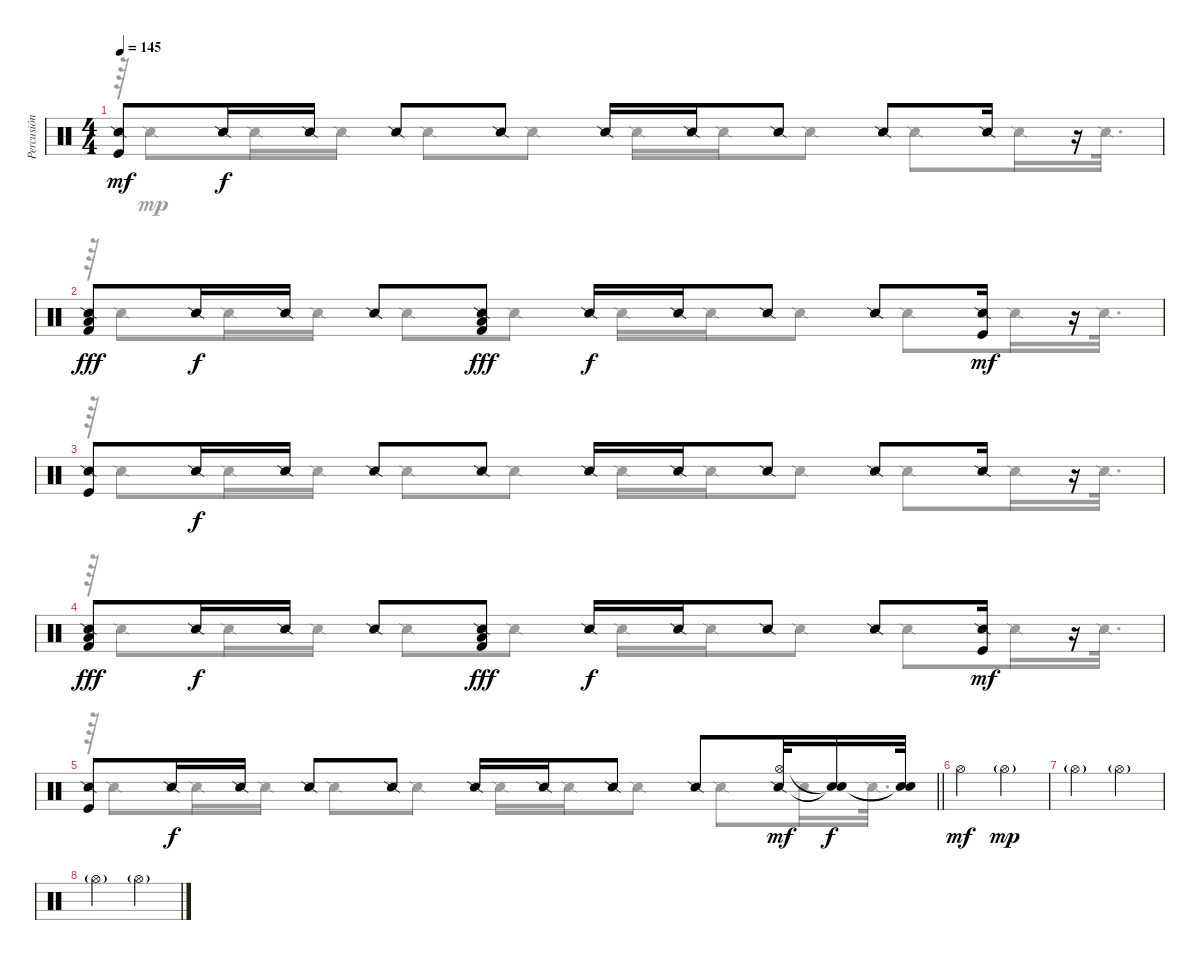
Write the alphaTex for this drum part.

\track ("Percusión" "Percusión") {instrument percussion}
\staff {score}
\articulation defaults
\voice
\ts (4 4)
\tempo 145
\clef neutral
\ks c
("Snare (side stick) 2" "Kick (hit)").8{dy mf} "Snare (side stick) 2".16{dy f} "Snare (side stick) 2".16 "Snare (side stick) 2".8 "Snare (side stick) 2".8 "Snare (side stick) 2".16 "Snare (side stick) 2".16 "Snare (side stick) 2".8 "Snare (side stick) 2".8 "Snare (side stick) 2".16 r.16 |
("Snare (side stick) 2" "Low Floor Tom (hit)" "Kick (hit) 2").8{dy fff} "Snare (side stick) 2".16{dy f} "Snare (side stick) 2".16 "Snare (side stick) 2".8 ("Snare (side stick) 2" "Low Floor Tom (hit)" "Kick (hit) 2").8{dy fff} "Snare (side stick) 2".16{dy f} "Snare (side stick) 2".16 "Snare (side stick) 2".8 "Snare (side stick) 2".8 ("Snare (side stick) 2" "Kick (hit)").16{dy mf} r.16 |
("Snare (side stick) 2" "Kick (hit)").8 "Snare (side stick) 2".16{dy f} "Snare (side stick) 2".16 "Snare (side stick) 2".8 "Snare (side stick) 2".8 "Snare (side stick) 2".16 "Snare (side stick) 2".16 "Snare (side stick) 2".8 "Snare (side stick) 2".8 "Snare (side stick) 2".16 r.16 |
("Snare (side stick) 2" "Low Floor Tom (hit)" "Kick (hit) 2").8{dy fff} "Snare (side stick) 2".16{dy f} "Snare (side stick) 2".16 "Snare (side stick) 2".8 ("Snare (side stick) 2" "Low Floor Tom (hit)" "Kick (hit) 2").8{dy fff} "Snare (side stick) 2".16{dy f} "Snare (side stick) 2".16 "Snare (side stick) 2".8 "Snare (side stick) 2".8 ("Snare (side stick) 2" "Kick (hit)").16{dy mf} r.16 |
\barLineRight lightlight
("Snare (side stick) 2" "Kick (hit)").8 "Snare (side stick) 2".16{dy f} "Snare (side stick) 2".16 "Snare (side stick) 2".8 "Snare (side stick) 2".8 "Snare (side stick) 2".16 "Snare (side stick) 2".16 "Snare (side stick) 2".8 "Snare (side stick) 2".8 ("Snare (side stick) 2" "Hi-Hat (open)").32{dy mf} ("Snare (hit)"{t} "Snare (hit)"{t}).16{dy f} ("Snare (hit)"{t} "Snare (hit)"{t}).32 |
"Hi-Hat (open)".2{dy mf} "Hi-Hat (open)"{g}.2{dy mp} |
"Hi-Hat (open)"{g}.2 "Hi-Hat (open)"{g}.2 |
"Hi-Hat (open)"{g}.2 "Hi-Hat (open)"{g}.2
\voice
\clef neutral
\ottava regular
\simile none
\ks c
r.64{dy mp} "Snare (side stick) 2".8 "Snare (side stick) 2".16 "Snare (side stick) 2".16 "Snare (side stick) 2".8 "Snare (side stick) 2".8 "Snare (side stick) 2".16 "Snare (side stick) 2".16 "Snare (side stick) 2".8 "Snare (side stick) 2".8 "Snare (side stick) 2".16 "Snare (side stick) 2".32{d} |
r.64 "Snare (side stick) 2".8 "Snare (side stick) 2".16 "Snare (side stick) 2".16 "Snare (side stick) 2".8 "Snare (side stick) 2".8 "Snare (side stick) 2".16 "Snare (side stick) 2".16 "Snare (side stick) 2".8 "Snare (side stick) 2".8 "Snare (side stick) 2".16 "Snare (side stick) 2".32{d} |
r.64 "Snare (side stick) 2".8 "Snare (side stick) 2".16 "Snare (side stick) 2".16 "Snare (side stick) 2".8 "Snare (side stick) 2".8 "Snare (side stick) 2".16 "Snare (side stick) 2".16 "Snare (side stick) 2".8 "Snare (side stick) 2".8 "Snare (side stick) 2".16 "Snare (side stick) 2".32{d} |
r.64 "Snare (side stick) 2".8 "Snare (side stick) 2".16 "Snare (side stick) 2".16 "Snare (side stick) 2".8 "Snare (side stick) 2".8 "Snare (side stick) 2".16 "Snare (side stick) 2".16 "Snare (side stick) 2".8 "Snare (side stick) 2".8 "Snare (side stick) 2".16 "Snare (side stick) 2".32{d} |
\barLineRight lightlight
r.64 "Snare (side stick) 2".8 "Snare (side stick) 2".16 "Snare (side stick) 2".16 "Snare (side stick) 2".8 "Snare (side stick) 2".8 "Snare (side stick) 2".16 "Snare (side stick) 2".16 "Snare (side stick) 2".8 "Snare (side stick) 2".8 "Snare (side stick) 2".16 "Snare (side stick) 2".32{d} |
|
|
